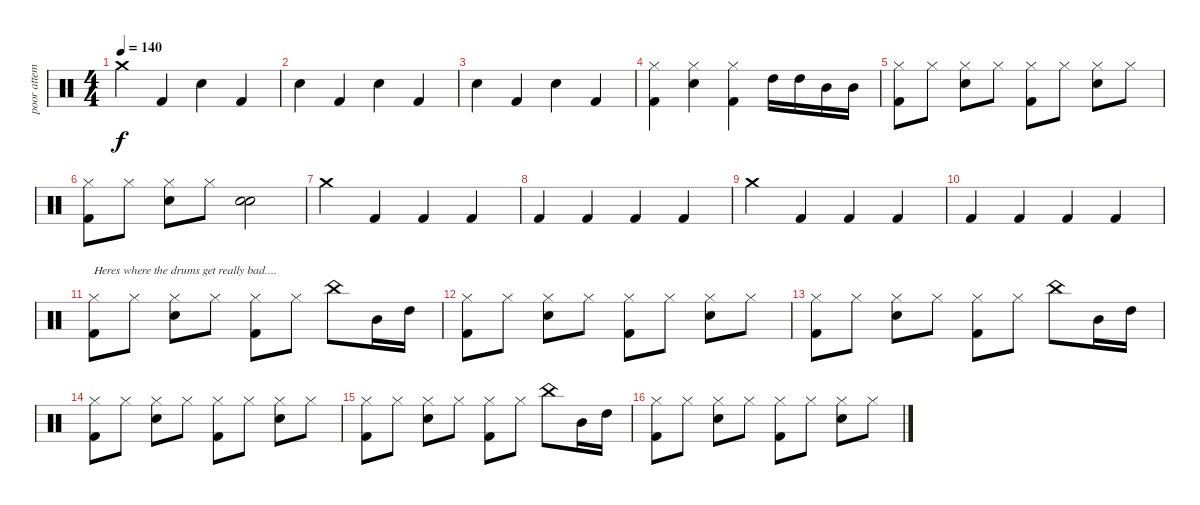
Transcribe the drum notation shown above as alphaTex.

\track ("poor attempt at zac's part" "poor attem") {instrument percussion}
\staff {score}
\articulation defaults
\ts (4 4)
\tempo 140
\clef neutral
\ks c "Crash medium (hit)".4{dy f} "Kick (hit) 2".4 "Snare (hit) 2".4 "Kick (hit) 2".4
|
"Snare (hit) 2".4 "Kick (hit) 2".4 "Snare (hit) 2".4 "Kick (hit) 2".4 |
"Snare (hit) 2".4 "Kick (hit) 2".4 "Snare (hit) 2".4 "Kick (hit) 2".4 |
("Kick (hit) 2" "Hi-Hat (closed)").4 ("Snare (hit) 2" "Hi-Hat (closed)").4 ("Kick (hit) 2" "Hi-Hat (closed)").4 "High Tom (hit)".16 "High Tom (hit)".16 "Mid Tom (hit)".16 "Mid Tom (hit)".16 |
("Kick (hit) 2" "Hi-Hat (closed)").8 "Hi-Hat (closed)".8 ("Snare (hit) 2" "Hi-Hat (closed)").8 "Hi-Hat (closed)".8 ("Kick (hit) 2" "Hi-Hat (closed)").8 "Hi-Hat (closed)".8 ("Snare (hit) 2" "Hi-Hat (closed)").8 "Hi-Hat (closed)".8 |
("Kick (hit) 2" "Hi-Hat (closed)").8 "Hi-Hat (closed)".8 ("Snare (hit) 2" "Hi-Hat (closed)").8 "Hi-Hat (closed)".8 ("Snare (hit) 2" "Snare (hit) 2").2 |
"Crash medium (hit)".4 "Kick (hit) 2".4 "Kick (hit) 2".4 "Kick (hit) 2".4 |
"Kick (hit) 2".4 "Kick (hit) 2".4 "Kick (hit) 2".4 "Kick (hit) 2".4 |
"Crash medium (hit)".4 "Kick (hit) 2".4 "Kick (hit) 2".4 "Kick (hit) 2".4 |
"Kick (hit) 2".4 "Kick (hit) 2".4 "Kick (hit) 2".4 "Kick (hit) 2".4 |
("Kick (hit) 2" "Hi-Hat (closed)").8{txt "Heres where the drums get really bad...."} "Hi-Hat (closed)".8 ("Snare (hit) 2" "Hi-Hat (closed)").8 "Hi-Hat (closed)".8 ("Kick (hit) 2" "Hi-Hat (closed)").8 "Hi-Hat (closed)".8 "China (hit)".8 "Mid Tom (hit)".16 "High Tom (hit)".16 |
("Kick (hit) 2" "Hi-Hat (closed)").8 "Hi-Hat (closed)".8 ("Snare (hit) 2" "Hi-Hat (closed)").8 "Hi-Hat (closed)".8 ("Kick (hit) 2" "Hi-Hat (closed)").8 "Hi-Hat (closed)".8 ("Snare (hit) 2" "Hi-Hat (closed)").8 "Hi-Hat (closed)".8 |
("Kick (hit) 2" "Hi-Hat (closed)").8 "Hi-Hat (closed)".8 ("Snare (hit) 2" "Hi-Hat (closed)").8 "Hi-Hat (closed)".8 ("Kick (hit) 2" "Hi-Hat (closed)").8 "Hi-Hat (closed)".8 "China (hit)".8 "Mid Tom (hit)".16 "High Tom (hit)".16 |
("Kick (hit) 2" "Hi-Hat (closed)").8 "Hi-Hat (closed)".8 ("Snare (hit) 2" "Hi-Hat (closed)").8 "Hi-Hat (closed)".8 ("Kick (hit) 2" "Hi-Hat (closed)").8 "Hi-Hat (closed)".8 ("Snare (hit) 2" "Hi-Hat (closed)").8 "Hi-Hat (closed)".8 |
("Kick (hit) 2" "Hi-Hat (closed)").8 "Hi-Hat (closed)".8 ("Snare (hit) 2" "Hi-Hat (closed)").8 "Hi-Hat (closed)".8 ("Kick (hit) 2" "Hi-Hat (closed)").8 "Hi-Hat (closed)".8 "China (hit)".8 "Mid Tom (hit)".16 "High Tom (hit)".16 |
("Kick (hit) 2" "Hi-Hat (closed)").8 "Hi-Hat (closed)".8 ("Snare (hit) 2" "Hi-Hat (closed)").8 "Hi-Hat (closed)".8 ("Kick (hit) 2" "Hi-Hat (closed)").8 "Hi-Hat (closed)".8 ("Snare (hit) 2" "Hi-Hat (closed)").8 "Hi-Hat (closed)".8
